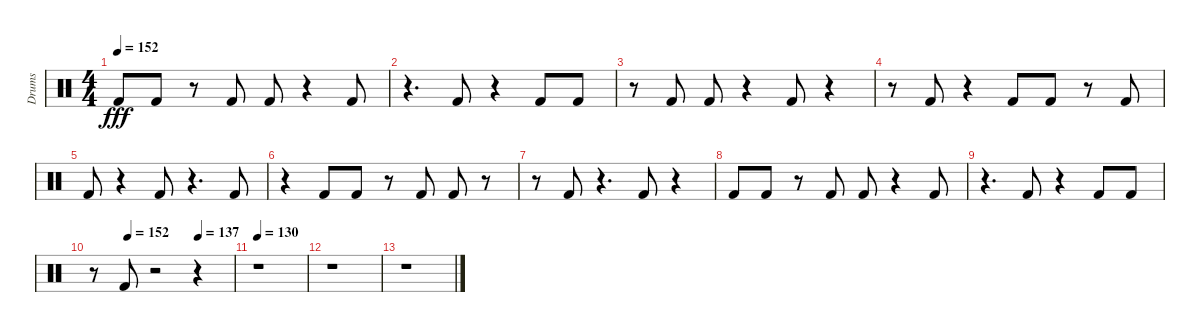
\track ("Drums" "Drums") {instrument percussion}
\staff {score}
\articulation defaults
\ts (4 4)
\tempo 152
\clef neutral
\ks c "Kick (hit) 2".8{dy fff} "Kick (hit) 2".8
r.8 "Kick (hit) 2".8 "Kick (hit) 2".8 r.4 "Kick (hit) 2".8 |
r.4{d} "Kick (hit) 2".8 r.4 "Kick (hit) 2".8 "Kick (hit) 2".8 |
r.8 "Kick (hit) 2".8 "Kick (hit) 2".8 r.4 "Kick (hit) 2".8 r.4 |
r.8 "Kick (hit) 2".8 r.4 "Kick (hit) 2".8 "Kick (hit) 2".8 r.8 "Kick (hit) 2".8 |
"Kick (hit) 2".8 r.4 "Kick (hit) 2".8 r.4{d} "Kick (hit) 2".8 |
r.4 "Kick (hit) 2".8 "Kick (hit) 2".8 r.8 "Kick (hit) 2".8 "Kick (hit) 2".8 r.8 |
r.8 "Kick (hit) 2".8 r.4{d} "Kick (hit) 2".8 r.4 |
"Kick (hit) 2".8 "Kick (hit) 2".8 r.8 "Kick (hit) 2".8 "Kick (hit) 2".8 r.4 "Kick (hit) 2".8 |
r.4{d} "Kick (hit) 2".8 r.4 "Kick (hit) 2".8 "Kick (hit) 2".8 |
\tempo (152 0.25)
\tempo (137 0.75)
r.8 "Kick (hit) 2".8 r.2 r.4 |
\tempo 130
r.1 |
r.1 |
r.1
